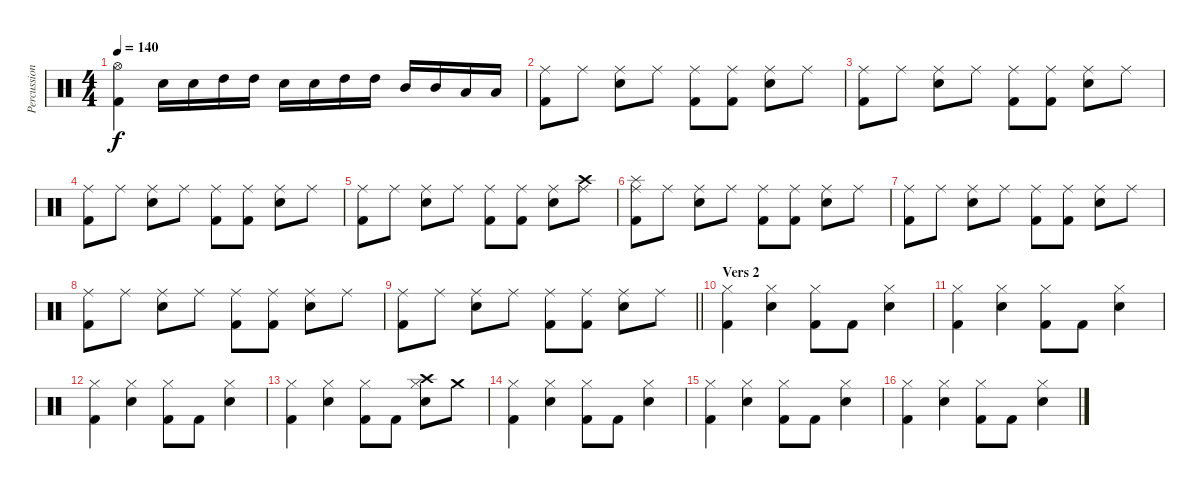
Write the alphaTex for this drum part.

\track ("Percussion" "Percussion") {instrument percussion}
\staff {score}
\articulation defaults
\ts (4 4)
\tempo 140
\clef neutral
\ks c
("Kick (hit) 2" "Hi-Hat (open)").4{dy f} "Snare (hit) 2".16 "Snare (hit) 2".16 "High Tom (hit)".16 "High Tom (hit)".16 "Snare (hit) 2".16 "Snare (hit) 2".16 "High Tom (hit)".16 "High Tom (hit)".16 "Mid Tom (hit)".16 "Mid Tom (hit)".16 "Low Tom (hit)".16 "Low Tom (hit)".16 |
("Kick (hit) 2" "Ride (middle)").8 "Ride (middle)".8 ("Snare (hit) 2" "Ride (middle)").8 "Ride (middle)".8 ("Kick (hit) 2" "Ride (middle)").8 ("Kick (hit) 2" "Ride (middle)").8 ("Snare (hit) 2" "Ride (middle)").8 "Ride (middle)".8 |
("Kick (hit) 2" "Ride (middle)").8 "Ride (middle)".8 ("Snare (hit) 2" "Ride (middle)").8 "Ride (middle)".8 ("Kick (hit) 2" "Ride (middle)").8 ("Kick (hit) 2" "Ride (middle)").8 ("Snare (hit) 2" "Ride (middle)").8 "Ride (middle)".8 |
("Kick (hit) 2" "Ride (middle)").8 "Ride (middle)".8 ("Snare (hit) 2" "Ride (middle)").8 "Ride (middle)".8 ("Kick (hit) 2" "Ride (middle)").8 ("Kick (hit) 2" "Ride (middle)").8 ("Snare (hit) 2" "Ride (middle)").8 "Ride (middle)".8 |
("Kick (hit) 2" "Ride (middle)").8 "Ride (middle)".8 ("Snare (hit) 2" "Ride (middle)").8 "Ride (middle)".8 ("Kick (hit) 2" "Ride (middle)").8 ("Kick (hit) 2" "Ride (middle)").8 ("Snare (hit) 2" "Ride (middle)").8 ("Crash high (hit)" "Ride (middle)").8 |
("Splash (hit)" "Kick (hit) 2" "Ride (middle)").8 "Ride (middle)".8 ("Snare (hit) 2" "Ride (middle)").8 "Ride (middle)".8 ("Kick (hit) 2" "Ride (middle)").8 ("Kick (hit) 2" "Ride (middle)").8 ("Snare (hit) 2" "Ride (middle)").8 "Ride (middle)".8 |
("Kick (hit) 2" "Ride (middle)").8 "Ride (middle)".8 ("Snare (hit) 2" "Ride (middle)").8 "Ride (middle)".8 ("Kick (hit) 2" "Ride (middle)").8 ("Kick (hit) 2" "Ride (middle)").8 ("Snare (hit) 2" "Ride (middle)").8 "Ride (middle)".8 |
("Kick (hit) 2" "Ride (middle)").8 "Ride (middle)".8 ("Snare (hit) 2" "Ride (middle)").8 "Ride (middle)".8 ("Kick (hit) 2" "Ride (middle)").8 ("Kick (hit) 2" "Ride (middle)").8 ("Snare (hit) 2" "Ride (middle)").8 "Ride (middle)".8 |
\barLineRight lightlight
("Kick (hit) 2" "Ride (middle)").8 "Ride (middle)".8 ("Snare (hit) 2" "Ride (middle)").8 "Ride (middle)".8 ("Kick (hit) 2" "Ride (middle)").8 ("Kick (hit) 2" "Ride (middle)").8 ("Snare (hit) 2" "Ride (middle)").8 "Ride (middle)".8 |
\section ("" "Vers 2")
("Kick (hit) 2" "Hi-Hat (closed)").4 ("Snare (hit) 2" "Hi-Hat (closed)").4 ("Kick (hit) 2" "Hi-Hat (closed)").8 "Kick (hit) 2".8 ("Snare (hit) 2" "Hi-Hat (closed)").4 |
("Kick (hit) 2" "Hi-Hat (closed)").4 ("Snare (hit) 2" "Hi-Hat (closed)").4 ("Kick (hit) 2" "Hi-Hat (closed)").8 "Kick (hit) 2".8 ("Snare (hit) 2" "Hi-Hat (closed)").4 |
("Kick (hit) 2" "Hi-Hat (closed)").4 ("Snare (hit) 2" "Hi-Hat (closed)").4 ("Kick (hit) 2" "Hi-Hat (closed)").8 "Kick (hit) 2".8 ("Snare (hit) 2" "Hi-Hat (closed)").4 |
("Kick (hit) 2" "Hi-Hat (closed)").4 ("Snare (hit) 2" "Hi-Hat (closed)").4 ("Kick (hit) 2" "Hi-Hat (closed)").8 "Kick (hit) 2".8 ("Crash high (hit)" "Snare (hit) 2" "Hi-Hat (closed)").8 "Crash medium (hit)".8 |
("Kick (hit) 2" "Hi-Hat (closed)").4 ("Snare (hit) 2" "Hi-Hat (closed)").4 ("Kick (hit) 2" "Hi-Hat (closed)").8 "Kick (hit) 2".8 ("Snare (hit) 2" "Hi-Hat (closed)").4 |
("Kick (hit) 2" "Hi-Hat (closed)").4 ("Snare (hit) 2" "Hi-Hat (closed)").4 ("Kick (hit) 2" "Hi-Hat (closed)").8 "Kick (hit) 2".8 ("Snare (hit) 2" "Hi-Hat (closed)").4 |
("Kick (hit) 2" "Hi-Hat (closed)").4 ("Snare (hit) 2" "Hi-Hat (closed)").4 ("Kick (hit) 2" "Hi-Hat (closed)").8 "Kick (hit) 2".8 ("Snare (hit) 2" "Hi-Hat (closed)").4
